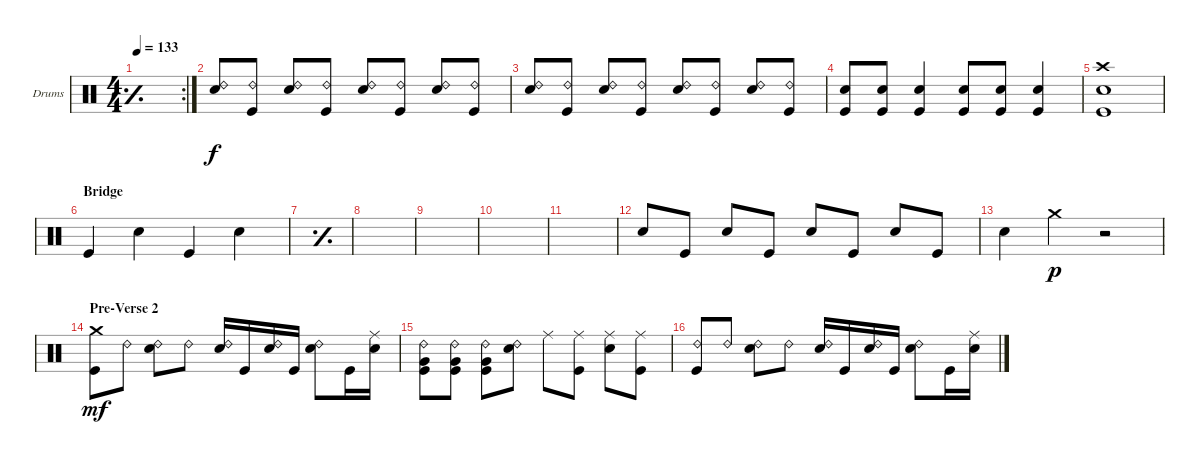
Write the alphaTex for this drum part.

\defaultSystemsLayout 4
\bracketExtendMode groupsimilarinstruments
\firstSystemTrackNameOrientation horizontal
\otherSystemsTrackNameOrientation horizontal
\chordDiagramsInScore
\track ("Drumkit" "Drums") {instrument percussion}
\staff {score}
\articulation defaults
\rc 2
\ts (4 4)
\tempo 133
\clef neutral
\simile simple
\ks c
|
("Ride (bell) 2" "Snare (hit) 2").8 ("Ride (bell) 2" "Kick (hit)").8 ("Ride (bell) 2" "Snare (hit) 2").8 ("Ride (bell) 2" "Kick (hit)").8 ("Ride (bell) 2" "Snare (hit) 2").8 ("Ride (bell) 2" "Kick (hit)").8 ("Ride (bell) 2" "Snare (hit) 2").8 ("Ride (bell) 2" "Kick (hit)").8 |
("Ride (bell) 2" "Snare (hit) 2").8 ("Ride (bell) 2" "Kick (hit)").8 ("Ride (bell) 2" "Snare (hit) 2").8 ("Ride (bell) 2" "Kick (hit)").8 ("Ride (bell) 2" "Snare (hit) 2").8 ("Ride (bell) 2" "Kick (hit)").8 ("Ride (bell) 2" "Snare (hit) 2").8 ("Ride (bell) 2" "Kick (hit)").8 |
("Kick (hit)" "Snare (hit) 2").8 ("Kick (hit)" "Snare (hit) 2").8 ("Kick (hit)" "Snare (hit) 2").4 ("Kick (hit)" "Snare (hit) 2").8 ("Kick (hit)" "Snare (hit) 2").8 ("Kick (hit)" "Snare (hit) 2").4 |
("Kick (hit)" "Snare (hit) 2" "Crash high (hit)").1 |
\section ("" "Bridge")
"Kick (hit)".4 "Snare (hit) 2".4 "Kick (hit)".4 "Snare (hit) 2".4 |
\simile simple
|
|
|
|
|
\simile none "Snare (hit) 2".8 "Kick (hit)".8 "Snare (hit) 2".8 "Kick (hit)".8 "Snare (hit) 2".8 "Kick (hit)".8 "Snare (hit) 2".8 "Kick (hit)".8
|
"Snare (hit) 2".4 "Crash medium (hit)".4{dy p} r.2 |
\section ("" "Pre-Verse 2")
("Kick (hit)" "Crash medium (hit)").8{dy mf} "Ride (bell) 2".8 ("Snare (hit) 2" "Ride (bell) 2").8 "Ride (bell) 2".8 ("Snare (hit) 2" "Ride (bell) 2").16 "Kick (hit)".16 ("Snare (hit) 2" "Ride (bell) 2").16 "Kick (hit)".16 ("Snare (hit) 2" "Ride (bell) 2").8 "Kick (hit)".16 ("Snare (hit) 2" "Ride (middle)").16 |
("Very Low Tom (hit)" "Kick (hit)" "Ride (bell) 2").8 ("Very Low Tom (hit)" "Kick (hit)" "Ride (bell) 2").8 ("Very Low Tom (hit)" "Kick (hit)" "Ride (bell) 2").8 ("Snare (hit) 2" "Ride (bell) 2").8 "Ride (middle)".8 ("Kick (hit)" "Ride (middle)").8 ("Snare (hit) 2" "Ride (middle)").8 ("Kick (hit)" "Ride (middle)").8 |
("Kick (hit)" "Ride (bell) 2").8 "Ride (bell) 2".8 ("Snare (hit) 2" "Ride (bell) 2").8 "Ride (bell) 2".8 ("Snare (hit) 2" "Ride (bell) 2").16 "Kick (hit)".16 ("Snare (hit) 2" "Ride (bell) 2").16 "Kick (hit)".16 ("Snare (hit) 2" "Ride (bell) 2").8 "Kick (hit)".16 ("Snare (hit) 2" "Ride (middle)").16
